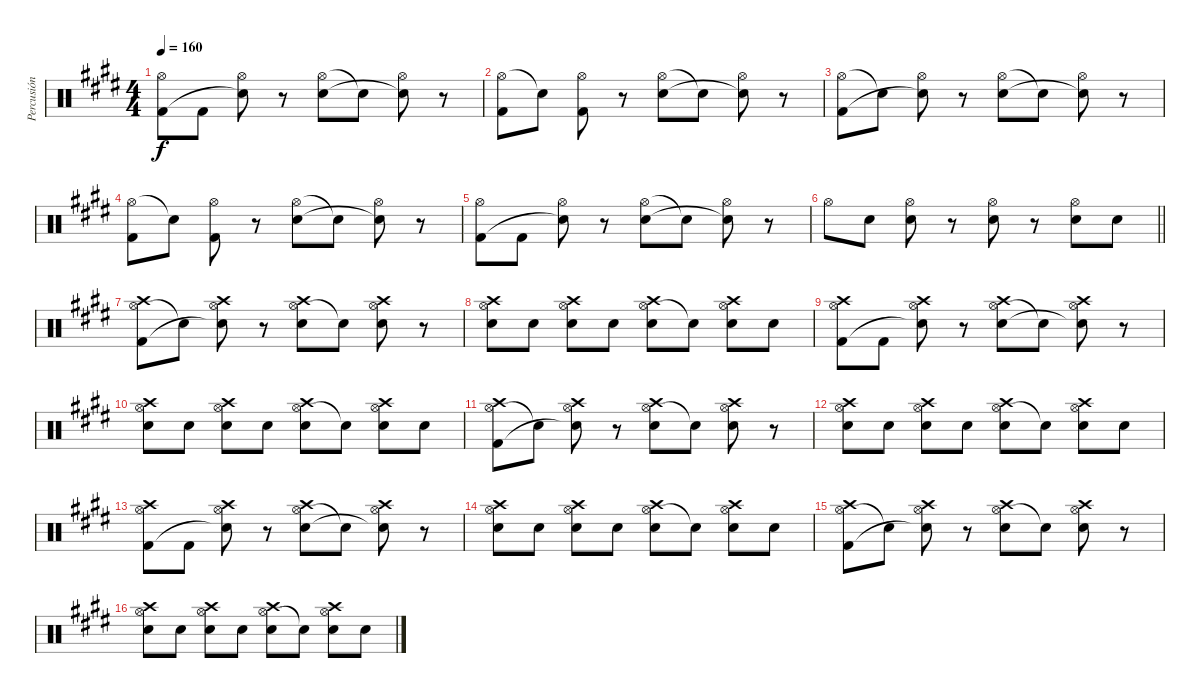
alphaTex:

\track ("Percusión" "Percusión") {instrument percussion}
\staff {score}
\articulation defaults
\ts (4 4)
\tempo 160
\clef neutral
\ks e
("Hi-Hat (open)" "Kick (hit) 2").8{dy f} "Kick (hit) 2".8 ("Hi-Hat (open)" "Snare (hit) 2"{t}).8 r.8 ("Hi-Hat (open)" "Electric Snare (hit)").8 "Snare (hit) 2"{t}.8 ("Hi-Hat (open)" "Snare (hit) 2"{t}).8 r.8 |
("Hi-Hat (open)" "Kick (hit) 2").8 "Snare (hit) 2"{t}.8 ("Hi-Hat (open)" "Kick (hit) 2").8 r.8 ("Hi-Hat (open)" "Electric Snare (hit)").8 "Snare (hit) 2"{t}.8 ("Hi-Hat (open)" "Snare (hit) 2"{t}).8 r.8 |
("Hi-Hat (open)" "Kick (hit) 2").8 "Snare (hit) 2"{t}.8 ("Hi-Hat (open)" "Snare (hit) 2"{t}).8 r.8 ("Hi-Hat (open)" "Electric Snare (hit)").8 "Snare (hit) 2"{t}.8 ("Hi-Hat (open)" "Snare (hit) 2"{t}).8 r.8 |
("Hi-Hat (open)" "Kick (hit) 2").8 "Snare (hit) 2"{t}.8 ("Hi-Hat (open)" "Kick (hit) 2").8 r.8 ("Hi-Hat (open)" "Electric Snare (hit)").8 "Snare (hit) 2"{t}.8 ("Hi-Hat (open)" "Snare (hit) 2"{t}).8 r.8 |
("Hi-Hat (open)" "Kick (hit) 2").8 "Kick (hit) 2".8 ("Hi-Hat (open)" "Snare (hit) 2"{t}).8 r.8 ("Hi-Hat (open)" "Electric Snare (hit)").8 "Snare (hit) 2"{t}.8 ("Hi-Hat (open)" "Snare (hit) 2"{t}).8 r.8 |
\barLineRight lightlight "Hi-Hat (open)".8 "Snare (hit) 2".8
("Hi-Hat (open)" "Snare (hit) 2").8 r.8 ("Hi-Hat (open)" "Snare (hit) 2").8 r.8 ("Hi-Hat (open)" "Snare (hit) 2").8 "Snare (hit) 2".8 |
\section ("" "")
("Hi-Hat (open)" "Crash high (hit)" "Kick (hit) 2").8 "Snare (hit) 2"{t}.8 ("Hi-Hat (open)" "Crash high (hit)" "Snare (hit) 2"{t}).8 r.8 ("Hi-Hat (open)" "Crash high (hit)" "Electric Snare (hit)").8 "Snare (hit) 2"{t}.8 ("Hi-Hat (open)" "Crash high (hit)" "Electric Snare (hit)").8 r.8 |
("Hi-Hat (open)" "Crash high (hit)" "Electric Snare (hit)").8 "Electric Snare (hit)".8 ("Hi-Hat (open)" "Crash high (hit)" "Snare (hit) 2").8 "Electric Snare (hit)".8 ("Hi-Hat (open)" "Crash high (hit)" "Electric Snare (hit)").8 "Snare (hit) 2"{t}.8 ("Hi-Hat (open)" "Crash high (hit)" "Electric Snare (hit)").8 "Electric Snare (hit)".8 |
("Hi-Hat (open)" "Crash high (hit)" "Kick (hit) 2").8 "Kick (hit) 2".8 ("Hi-Hat (open)" "Crash high (hit)" "Snare (hit) 2"{t}).8 r.8 ("Hi-Hat (open)" "Crash high (hit)" "Electric Snare (hit)").8 "Snare (hit) 2"{t}.8 ("Hi-Hat (open)" "Crash high (hit)" "Snare (hit) 2"{t}).8 r.8 |
("Hi-Hat (open)" "Crash high (hit)" "Electric Snare (hit)").8 "Electric Snare (hit)".8 ("Hi-Hat (open)" "Crash high (hit)" "Snare (hit) 2").8 "Electric Snare (hit)".8 ("Hi-Hat (open)" "Crash high (hit)" "Electric Snare (hit)").8 "Snare (hit) 2"{t}.8 ("Hi-Hat (open)" "Crash high (hit)" "Electric Snare (hit)").8 "Electric Snare (hit)".8 |
("Hi-Hat (open)" "Crash high (hit)" "Kick (hit) 2").8 "Snare (hit) 2"{t}.8 ("Hi-Hat (open)" "Crash high (hit)" "Snare (hit) 2"{t}).8 r.8 ("Hi-Hat (open)" "Crash high (hit)" "Electric Snare (hit)").8 "Snare (hit) 2"{t}.8 ("Hi-Hat (open)" "Crash high (hit)" "Electric Snare (hit)").8 r.8 |
("Hi-Hat (open)" "Crash high (hit)" "Electric Snare (hit)").8 "Electric Snare (hit)".8 ("Hi-Hat (open)" "Crash high (hit)" "Snare (hit) 2").8 "Electric Snare (hit)".8 ("Hi-Hat (open)" "Crash high (hit)" "Electric Snare (hit)").8 "Snare (hit) 2"{t}.8 ("Hi-Hat (open)" "Crash high (hit)" "Electric Snare (hit)").8 "Electric Snare (hit)".8 |
("Hi-Hat (open)" "Crash high (hit)" "Kick (hit) 2").8 "Kick (hit) 2".8 ("Hi-Hat (open)" "Crash high (hit)" "Snare (hit) 2"{t}).8 r.8 ("Hi-Hat (open)" "Crash high (hit)" "Electric Snare (hit)").8 "Snare (hit) 2"{t}.8 ("Hi-Hat (open)" "Crash high (hit)" "Snare (hit) 2"{t}).8 r.8 |
("Hi-Hat (open)" "Crash high (hit)" "Electric Snare (hit)").8 "Electric Snare (hit)".8 ("Hi-Hat (open)" "Crash high (hit)" "Snare (hit) 2").8 "Electric Snare (hit)".8 ("Hi-Hat (open)" "Crash high (hit)" "Electric Snare (hit)").8 "Snare (hit) 2"{t}.8 ("Hi-Hat (open)" "Crash high (hit)" "Electric Snare (hit)").8 "Electric Snare (hit)".8 |
("Hi-Hat (open)" "Crash high (hit)" "Kick (hit) 2").8 "Snare (hit) 2"{t}.8 ("Hi-Hat (open)" "Crash high (hit)" "Snare (hit) 2"{t}).8 r.8 ("Hi-Hat (open)" "Crash high (hit)" "Electric Snare (hit)").8 "Snare (hit) 2"{t}.8 ("Hi-Hat (open)" "Crash high (hit)" "Electric Snare (hit)").8 r.8 |
("Hi-Hat (open)" "Crash high (hit)" "Electric Snare (hit)").8 "Electric Snare (hit)".8 ("Hi-Hat (open)" "Crash high (hit)" "Snare (hit) 2").8 "Electric Snare (hit)".8 ("Hi-Hat (open)" "Crash high (hit)" "Electric Snare (hit)").8 "Snare (hit) 2"{t}.8 ("Hi-Hat (open)" "Crash high (hit)" "Electric Snare (hit)").8 "Electric Snare (hit)".8
